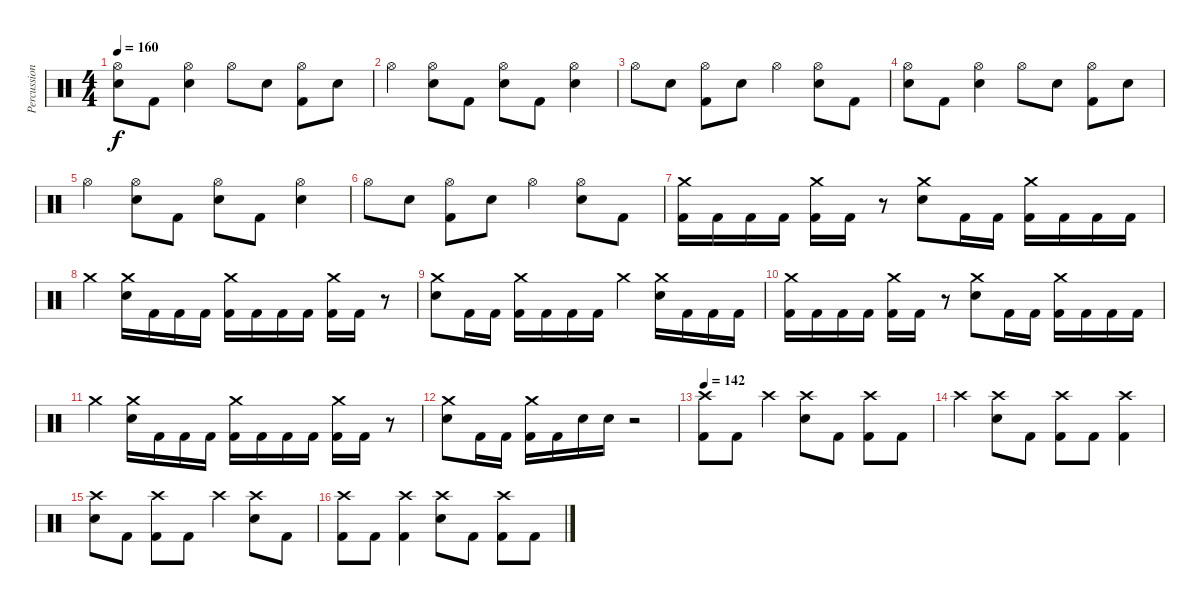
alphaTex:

\track ("Percussion" "Percussion") {instrument percussion}
\staff {score}
\articulation defaults
\ts (4 4)
\tempo 160
\clef neutral
\ks c
("Hi-Hat (open)" "Electric Snare (hit)").8{dy f} "Kick (hit) 2".8 ("Hi-Hat (open)" "Electric Snare (hit)").4 "Hi-Hat (open)".8 "Electric Snare (hit)".8 ("Hi-Hat (open)" "Kick (hit) 2").8 "Electric Snare (hit)".8 |
"Hi-Hat (open)".4 ("Hi-Hat (open)" "Electric Snare (hit)").8 "Kick (hit) 2".8 ("Hi-Hat (open)" "Electric Snare (hit)").8 "Kick (hit) 2".8 ("Hi-Hat (open)" "Electric Snare (hit)").4 |
"Hi-Hat (open)".8 "Electric Snare (hit)".8 ("Hi-Hat (open)" "Kick (hit) 2").8 "Electric Snare (hit)".8 "Hi-Hat (open)".4 ("Hi-Hat (open)" "Electric Snare (hit)").8 "Kick (hit) 2".8 |
("Hi-Hat (open)" "Electric Snare (hit)").8 "Kick (hit) 2".8 ("Hi-Hat (open)" "Electric Snare (hit)").4 "Hi-Hat (open)".8 "Electric Snare (hit)".8 ("Hi-Hat (open)" "Kick (hit) 2").8 "Electric Snare (hit)".8 |
"Hi-Hat (open)".4 ("Hi-Hat (open)" "Electric Snare (hit)").8 "Kick (hit) 2".8 ("Hi-Hat (open)" "Electric Snare (hit)").8 "Kick (hit) 2".8 ("Hi-Hat (open)" "Electric Snare (hit)").4 |
"Hi-Hat (open)".8 "Electric Snare (hit)".8 ("Hi-Hat (open)" "Kick (hit) 2").8 "Electric Snare (hit)".8 "Hi-Hat (open)".4 ("Hi-Hat (open)" "Electric Snare (hit)").8 "Kick (hit) 2".8 |
("Crash medium (hit)" "Kick (hit) 2").16 "Kick (hit) 2".16 "Kick (hit) 2".16 "Kick (hit) 2".16 ("Crash medium (hit)" "Kick (hit) 2").16 "Kick (hit) 2".16 r.8 ("Crash medium (hit)" "Electric Snare (hit)").8 "Kick (hit) 2".16 "Kick (hit) 2".16 ("Crash medium (hit)" "Kick (hit) 2").16 "Kick (hit) 2".16 "Kick (hit) 2".16 "Kick (hit) 2".16 |
"Crash medium (hit)".4 ("Crash medium (hit)" "Electric Snare (hit)").16 "Kick (hit) 2".16 "Kick (hit) 2".16 "Kick (hit) 2".16 ("Crash medium (hit)" "Kick (hit) 2").16 "Kick (hit) 2".16 "Kick (hit) 2".16 "Kick (hit) 2".16 ("Crash medium (hit)" "Kick (hit) 2").16 "Kick (hit) 2".16 r.8 |
("Crash medium (hit)" "Electric Snare (hit)").8 "Kick (hit) 2".16 "Kick (hit) 2".16 ("Crash medium (hit)" "Kick (hit) 2").16 "Kick (hit) 2".16 "Kick (hit) 2".16 "Kick (hit) 2".16 "Crash medium (hit)".4 ("Crash medium (hit)" "Electric Snare (hit)").16 "Kick (hit) 2".16 "Kick (hit) 2".16 "Kick (hit) 2".16 |
("Crash medium (hit)" "Kick (hit) 2").16 "Kick (hit) 2".16 "Kick (hit) 2".16 "Kick (hit) 2".16 ("Crash medium (hit)" "Kick (hit) 2").16 "Kick (hit) 2".16 r.8 ("Crash medium (hit)" "Electric Snare (hit)").8 "Kick (hit) 2".16 "Kick (hit) 2".16 ("Crash medium (hit)" "Kick (hit) 2").16 "Kick (hit) 2".16 "Kick (hit) 2".16 "Kick (hit) 2".16 |
"Crash medium (hit)".4 ("Crash medium (hit)" "Electric Snare (hit)").16 "Kick (hit) 2".16 "Kick (hit) 2".16 "Kick (hit) 2".16 ("Crash medium (hit)" "Kick (hit) 2").16 "Kick (hit) 2".16 "Kick (hit) 2".16 "Kick (hit) 2".16 ("Crash medium (hit)" "Kick (hit) 2").16 "Kick (hit) 2".16 r.8 |
("Crash medium (hit)" "Electric Snare (hit)").8 "Kick (hit) 2".16 "Kick (hit) 2".16 ("Crash medium (hit)" "Kick (hit) 2").16 "Kick (hit) 2".16 "Electric Snare (hit)".16 "Electric Snare (hit)".16 r.2 |
\tempo 142
("Crash high (hit)" "Kick (hit) 2").8 "Kick (hit) 2".8 "Crash high (hit)".4 ("Crash high (hit)" "Electric Snare (hit)").8 "Kick (hit) 2".8 ("Crash high (hit)" "Kick (hit) 2").8 "Kick (hit) 2".8 |
"Crash high (hit)".4 ("Crash high (hit)" "Electric Snare (hit)").8 "Kick (hit) 2".8 ("Crash high (hit)" "Kick (hit) 2").8 "Kick (hit) 2".8 ("Crash high (hit)" "Kick (hit) 2").4 |
("Crash high (hit)" "Electric Snare (hit)").8 "Kick (hit) 2".8 ("Crash high (hit)" "Kick (hit) 2").8 "Kick (hit) 2".8 "Crash high (hit)".4 ("Crash high (hit)" "Electric Snare (hit)").8 "Kick (hit) 2".8 |
("Crash high (hit)" "Kick (hit) 2").8 "Kick (hit) 2".8 ("Crash high (hit)" "Kick (hit) 2").4 ("Crash high (hit)" "Electric Snare (hit)").8 "Kick (hit) 2".8 ("Crash high (hit)" "Kick (hit) 2").8 "Kick (hit) 2".8
